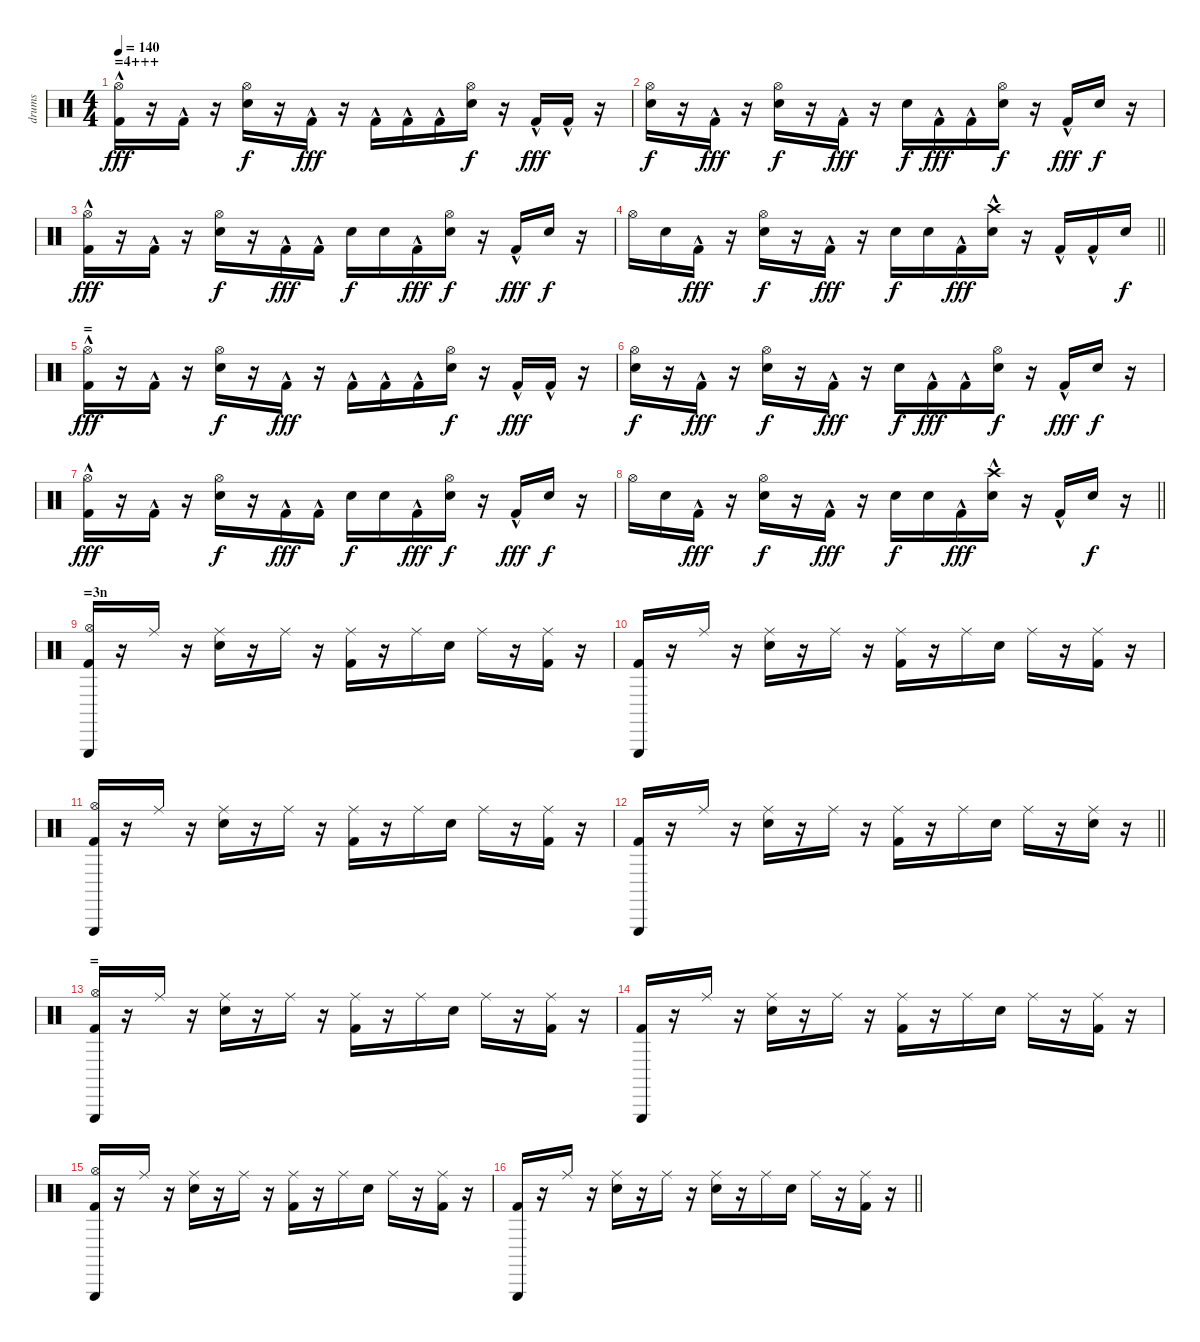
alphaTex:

\track ("drums" "drums") {instrument percussion}
\staff {score}
\articulation defaults
\ts (4 4)
\section ("" "=4+++")
\tempo 140
\clef neutral
\ks c
("Kick (hit) 2"{hac} "Hi-Hat (open)").16{dy fff} r.16 "Kick (hit) 2"{hac}.16 r.16 ("Electric Snare (hit)" "Hi-Hat (open)").16{dy f} r.16 "Kick (hit) 2"{hac}.16{dy fff} r.16 "Kick (hit) 2"{hac}.16 "Kick (hit) 2"{hac}.16 "Kick (hit) 2"{hac}.16 ("Electric Snare (hit)" "Hi-Hat (open)").16{dy f} r.16 "Kick (hit) 2"{hac}.16{dy fff} "Kick (hit) 2"{hac}.16 r.16 |
("Electric Snare (hit)" "Hi-Hat (open)").16{dy f} r.16 "Kick (hit) 2"{hac}.16{dy fff} r.16 ("Electric Snare (hit)" "Hi-Hat (open)").16{dy f} r.16 "Kick (hit) 2"{hac}.16{dy fff} r.16 "Electric Snare (hit)".16{dy f} "Kick (hit) 2"{hac}.16{dy fff} "Kick (hit) 2"{hac}.16 ("Electric Snare (hit)" "Hi-Hat (open)").16{dy f} r.16 "Kick (hit) 2"{hac}.16{dy fff} "Electric Snare (hit)".16{dy f} r.16 |
("Kick (hit) 2"{hac} "Hi-Hat (open)").16{dy fff} r.16 "Kick (hit) 2"{hac}.16 r.16 ("Electric Snare (hit)" "Hi-Hat (open)").16{dy f} r.16 "Kick (hit) 2"{hac}.16{dy fff} "Kick (hit) 2"{hac}.16 "Electric Snare (hit)".16{dy f} "Electric Snare (hit)".16 "Kick (hit) 2"{hac}.16{dy fff} ("Electric Snare (hit)" "Hi-Hat (open)").16{dy f} r.16 "Kick (hit) 2"{hac}.16{dy fff} "Electric Snare (hit)".16{dy f} r.16 |
\barLineRight lightlight "Hi-Hat (open)".16 "Electric Snare (hit)".16 "Kick (hit) 2"{hac}.16{dy fff}
r.16 ("Electric Snare (hit)" "Hi-Hat (open)").16{dy f} r.16 "Kick (hit) 2"{hac}.16{dy fff} r.16 "Electric Snare (hit)".16{dy f} "Electric Snare (hit)".16 "Kick (hit) 2"{hac}.16{dy fff} ("Electric Snare (hit)" "Crash high (hit)"{hac}).16 r.16 "Kick (hit) 2"{hac}.16 "Kick (hit) 2"{hac}.16 "Electric Snare (hit)".16{dy f} |
\section ("" "=")
("Kick (hit) 2"{hac} "Hi-Hat (open)").16{dy fff} r.16 "Kick (hit) 2"{hac}.16 r.16 ("Electric Snare (hit)" "Hi-Hat (open)").16{dy f} r.16 "Kick (hit) 2"{hac}.16{dy fff} r.16 "Kick (hit) 2"{hac}.16 "Kick (hit) 2"{hac}.16 "Kick (hit) 2"{hac}.16 ("Electric Snare (hit)" "Hi-Hat (open)").16{dy f} r.16 "Kick (hit) 2"{hac}.16{dy fff} "Kick (hit) 2"{hac}.16 r.16 |
("Electric Snare (hit)" "Hi-Hat (open)").16{dy f} r.16 "Kick (hit) 2"{hac}.16{dy fff} r.16 ("Electric Snare (hit)" "Hi-Hat (open)").16{dy f} r.16 "Kick (hit) 2"{hac}.16{dy fff} r.16 "Electric Snare (hit)".16{dy f} "Kick (hit) 2"{hac}.16{dy fff} "Kick (hit) 2"{hac}.16 ("Electric Snare (hit)" "Hi-Hat (open)").16{dy f} r.16 "Kick (hit) 2"{hac}.16{dy fff} "Electric Snare (hit)".16{dy f} r.16 |
("Kick (hit) 2"{hac} "Hi-Hat (open)").16{dy fff} r.16 "Kick (hit) 2"{hac}.16 r.16 ("Electric Snare (hit)" "Hi-Hat (open)").16{dy f} r.16 "Kick (hit) 2"{hac}.16{dy fff} "Kick (hit) 2"{hac}.16 "Electric Snare (hit)".16{dy f} "Electric Snare (hit)".16 "Kick (hit) 2"{hac}.16{dy fff} ("Electric Snare (hit)" "Hi-Hat (open)").16{dy f} r.16 "Kick (hit) 2"{hac}.16{dy fff} "Electric Snare (hit)".16{dy f} r.16 |
\barLineRight lightlight "Hi-Hat (open)".16 "Electric Snare (hit)".16 "Kick (hit) 2"{hac}.16{dy fff}
r.16 ("Electric Snare (hit)" "Hi-Hat (open)").16{dy f} r.16 "Kick (hit) 2"{hac}.16{dy fff} r.16 "Electric Snare (hit)".16{dy f} "Electric Snare (hit)".16 "Kick (hit) 2"{hac}.16{dy fff} ("Electric Snare (hit)" "Crash high (hit)"{hac}).16 r.16 "Kick (hit) 2"{hac}.16 "Electric Snare (hit)".16{dy f} r.16 |
\section ("" "=3n")
("Kick (hit) 2" "Hi-Hat (open)" "Triangle (hit)").16 r.16 "Ride (middle)".16 r.16 ("Electric Snare (hit)" "Ride (middle)").16 r.16 "Ride (middle)".16 r.16 ("Kick (hit) 2" "Ride (middle)").16 r.16 "Ride (middle)".16 "Electric Snare (hit)".16 "Ride (middle)".16 r.16 ("Kick (hit) 2" "Ride (middle)").16 r.16 |
("Kick (hit) 2" "Triangle (hit)").16 r.16 "Ride (middle)".16 r.16 ("Electric Snare (hit)" "Ride (middle)").16 r.16 "Ride (middle)".16 r.16 ("Kick (hit) 2" "Ride (middle)").16 r.16 "Ride (middle)".16 "Electric Snare (hit)".16 "Ride (middle)".16 r.16 ("Kick (hit) 2" "Ride (middle)").16 r.16 |
("Kick (hit) 2" "Hi-Hat (open)" "Triangle (hit)").16 r.16 "Ride (middle)".16 r.16 ("Electric Snare (hit)" "Ride (middle)").16 r.16 "Ride (middle)".16 r.16 ("Kick (hit) 2" "Ride (middle)").16 r.16 "Ride (middle)".16 "Electric Snare (hit)".16 "Ride (middle)".16 r.16 ("Kick (hit) 2" "Ride (middle)").16 r.16 |
\barLineRight lightlight
("Kick (hit) 2" "Triangle (hit)").16 r.16 "Ride (middle)".16 r.16 ("Electric Snare (hit)" "Ride (middle)").16 r.16 "Ride (middle)".16 r.16 ("Kick (hit) 2" "Ride (middle)").16 r.16 "Ride (middle)".16 "Electric Snare (hit)".16 "Ride (middle)".16 r.16 ("Electric Snare (hit)" "Ride (middle)").16 r.16 |
\section ("" "=")
("Kick (hit) 2" "Hi-Hat (open)" "Triangle (hit)").16 r.16 "Ride (middle)".16 r.16 ("Electric Snare (hit)" "Ride (middle)").16 r.16 "Ride (middle)".16 r.16 ("Kick (hit) 2" "Ride (middle)").16 r.16 "Ride (middle)".16 "Electric Snare (hit)".16 "Ride (middle)".16 r.16 ("Kick (hit) 2" "Ride (middle)").16 r.16 |
("Kick (hit) 2" "Triangle (hit)").16 r.16 "Ride (middle)".16 r.16 ("Electric Snare (hit)" "Ride (middle)").16 r.16 "Ride (middle)".16 r.16 ("Kick (hit) 2" "Ride (middle)").16 r.16 "Ride (middle)".16 "Electric Snare (hit)".16 "Ride (middle)".16 r.16 ("Kick (hit) 2" "Ride (middle)").16 r.16 |
("Kick (hit) 2" "Hi-Hat (open)" "Triangle (hit)").16 r.16 "Ride (middle)".16 r.16 ("Electric Snare (hit)" "Ride (middle)").16 r.16 "Ride (middle)".16 r.16 ("Kick (hit) 2" "Ride (middle)").16 r.16 "Ride (middle)".16 "Electric Snare (hit)".16 "Ride (middle)".16 r.16 ("Kick (hit) 2" "Ride (middle)").16 r.16 |
\barLineRight lightlight
("Kick (hit) 2" "Triangle (hit)").16 r.16 "Ride (middle)".16 r.16 ("Electric Snare (hit)" "Ride (middle)").16 r.16 "Ride (middle)".16 r.16 ("Electric Snare (hit)" "Ride (middle)").16 r.16 "Ride (middle)".16 "Electric Snare (hit)".16 "Ride (middle)".16 r.16 ("Kick (hit) 2" "Ride (middle)").16 r.16
